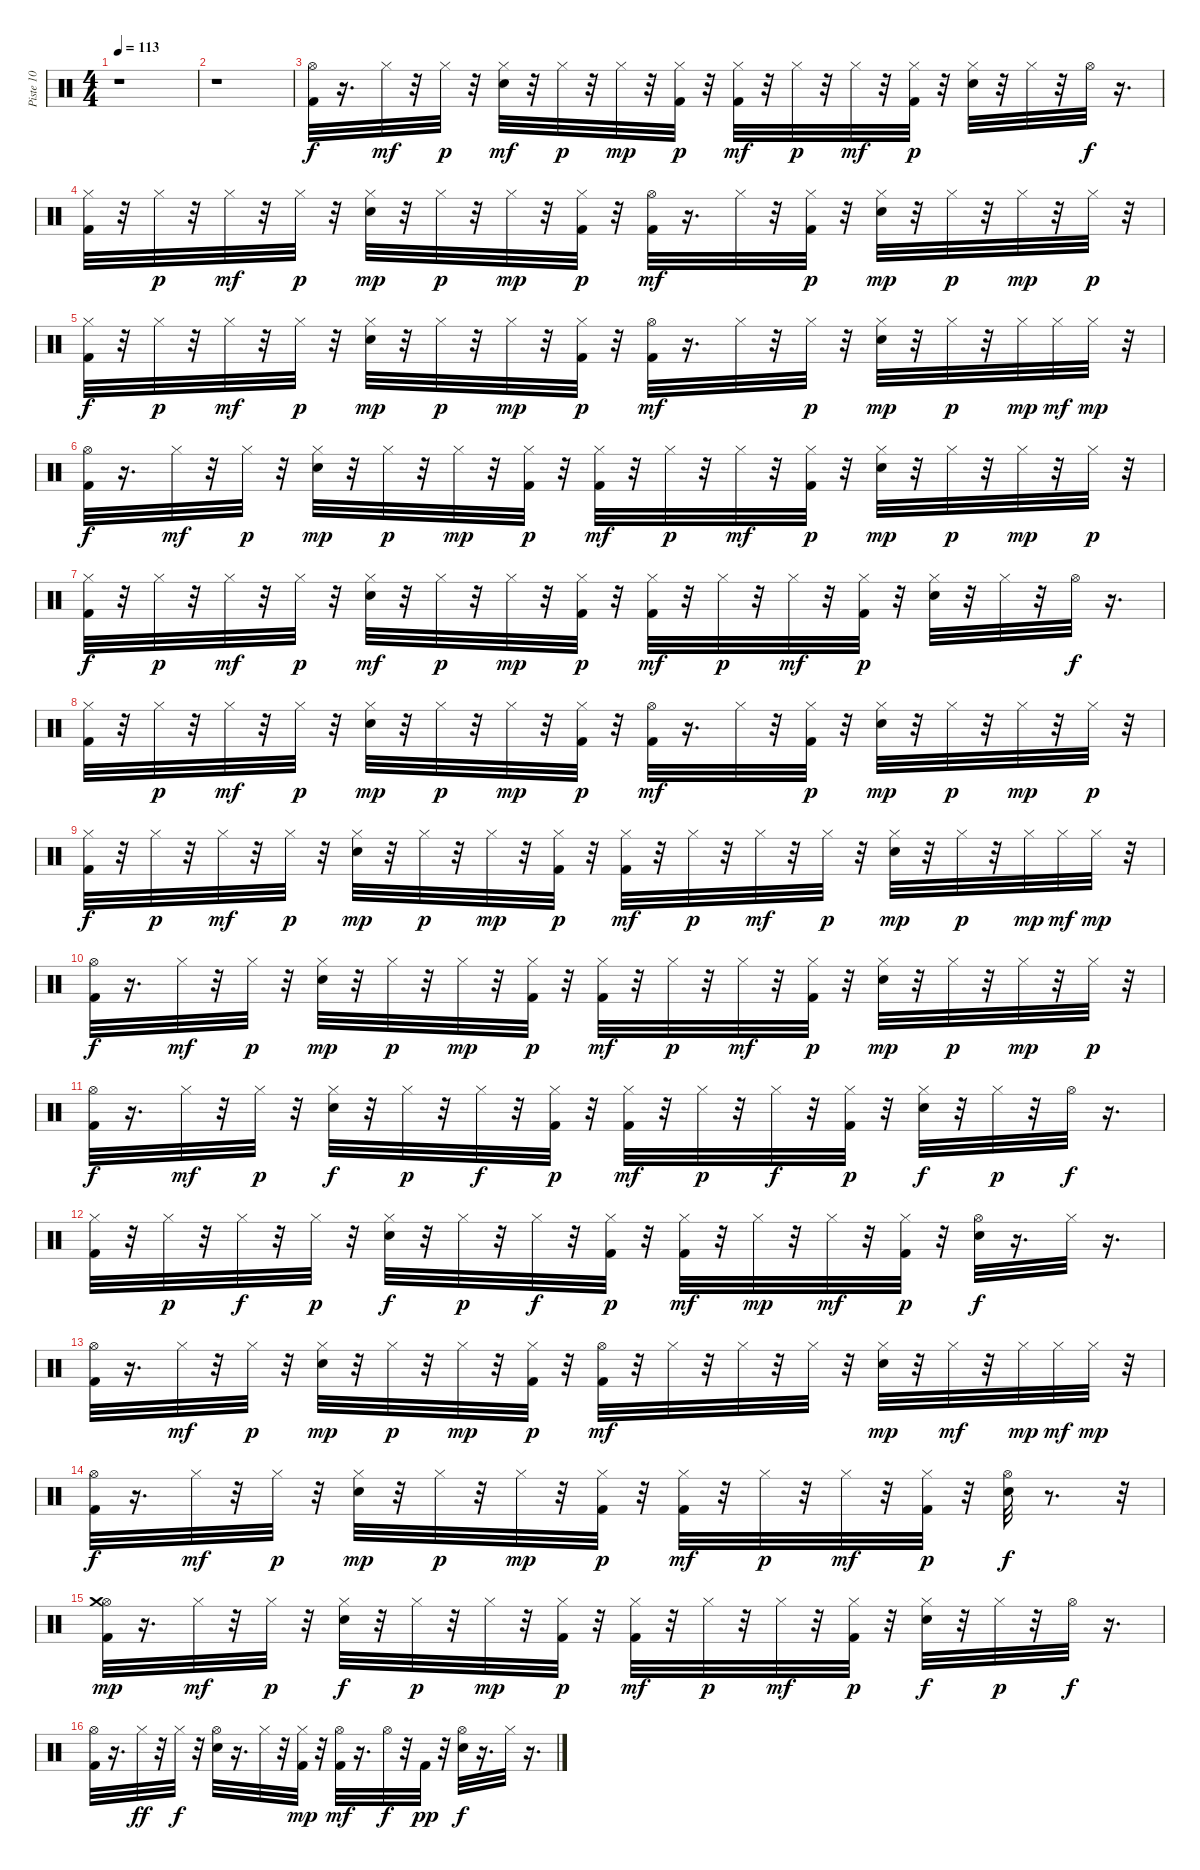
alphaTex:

\track ("Piste 10" "Piste 10") {instrument percussion}
\staff {score}
\articulation defaults
\ts (4 4)
\tempo 113
\clef neutral
\ks c
r.1{dy f} |
r.1 |
("Kick (hit) 2" "Hi-Hat (open)").32 r.16{d} "Hi-Hat (closed)".32{dy mf} r.32 "Hi-Hat (closed)".32{dy p} r.32 ("Electric Snare (hit)" "Hi-Hat (closed)").32{dy mf} r.32 "Hi-Hat (closed)".32{dy p} r.32 "Hi-Hat (closed)".32{dy mp} r.32 ("Kick (hit) 2" "Hi-Hat (closed)").32{dy p} r.32 ("Kick (hit) 2" "Hi-Hat (closed)").32{dy mf} r.32 "Hi-Hat (closed)".32{dy p} r.32 "Hi-Hat (closed)".32{dy mf} r.32 ("Kick (hit) 2" "Hi-Hat (closed)").32{dy p} r.32 ("Electric Snare (hit)" "Hi-Hat (closed)").32 r.32 "Hi-Hat (closed)".32 r.32 "Hi-Hat (open)".32{dy f} r.16{d} |
("Kick (hit) 2" "Hi-Hat (closed)").32 r.32 "Hi-Hat (closed)".32{dy p} r.32 "Hi-Hat (closed)".32{dy mf} r.32 "Hi-Hat (closed)".32{dy p} r.32 ("Electric Snare (hit)" "Hi-Hat (closed)").32{dy mp} r.32 "Hi-Hat (closed)".32{dy p} r.32 "Hi-Hat (closed)".32{dy mp} r.32 ("Kick (hit) 2" "Hi-Hat (closed)").32{dy p} r.32 ("Kick (hit) 2" "Hi-Hat (open)").32{dy mf} r.16{d} "Hi-Hat (closed)".32 r.32 ("Kick (hit) 2" "Hi-Hat (closed)").32{dy p} r.32 ("Electric Snare (hit)" "Hi-Hat (closed)").32{dy mp} r.32 "Hi-Hat (closed)".32{dy p} r.32 "Hi-Hat (closed)".32{dy mp} r.32 "Hi-Hat (closed)".32{dy p} r.32 |
("Kick (hit) 2" "Hi-Hat (closed)").32{dy f} r.32 "Hi-Hat (closed)".32{dy p} r.32 "Hi-Hat (closed)".32{dy mf} r.32 "Hi-Hat (closed)".32{dy p} r.32 ("Electric Snare (hit)" "Hi-Hat (closed)").32{dy mp} r.32 "Hi-Hat (closed)".32{dy p} r.32 "Hi-Hat (closed)".32{dy mp} r.32 ("Kick (hit) 2" "Hi-Hat (closed)").32{dy p} r.32 ("Kick (hit) 2" "Hi-Hat (open)").32{dy mf} r.16{d} "Hi-Hat (closed)".32 r.32 "Hi-Hat (closed)".32{dy p} r.32 ("Electric Snare (hit)" "Hi-Hat (closed)").32{dy mp} r.32 "Hi-Hat (closed)".32{dy p} r.32 "Hi-Hat (closed)".32{dy mp} "Hi-Hat (closed)".32{dy mf} "Hi-Hat (closed)".32{dy mp} r.32 |
("Kick (hit) 2" "Hi-Hat (open)").32{dy f} r.16{d} "Hi-Hat (closed)".32{dy mf} r.32 "Hi-Hat (closed)".32{dy p} r.32 ("Electric Snare (hit)" "Hi-Hat (closed)").32{dy mp} r.32 "Hi-Hat (closed)".32{dy p} r.32 "Hi-Hat (closed)".32{dy mp} r.32 ("Kick (hit) 2" "Hi-Hat (closed)").32{dy p} r.32 ("Kick (hit) 2" "Hi-Hat (closed)").32{dy mf} r.32 "Hi-Hat (closed)".32{dy p} r.32 "Hi-Hat (closed)".32{dy mf} r.32 ("Kick (hit) 2" "Hi-Hat (closed)").32{dy p} r.32 ("Electric Snare (hit)" "Hi-Hat (closed)").32{dy mp} r.32 "Hi-Hat (closed)".32{dy p} r.32 "Hi-Hat (closed)".32{dy mp} r.32 "Hi-Hat (closed)".32{dy p} r.32 |
("Kick (hit) 2" "Hi-Hat (closed)").32{dy f} r.32 "Hi-Hat (closed)".32{dy p} r.32 "Hi-Hat (closed)".32{dy mf} r.32 "Hi-Hat (closed)".32{dy p} r.32 ("Electric Snare (hit)" "Hi-Hat (closed)").32{dy mf} r.32 "Hi-Hat (closed)".32{dy p} r.32 "Hi-Hat (closed)".32{dy mp} r.32 ("Kick (hit) 2" "Hi-Hat (closed)").32{dy p} r.32 ("Kick (hit) 2" "Hi-Hat (closed)").32{dy mf} r.32 "Hi-Hat (closed)".32{dy p} r.32 "Hi-Hat (closed)".32{dy mf} r.32 ("Kick (hit) 2" "Hi-Hat (closed)").32{dy p} r.32 ("Electric Snare (hit)" "Hi-Hat (closed)").32 r.32 "Hi-Hat (closed)".32 r.32 "Hi-Hat (open)".32{dy f} r.16{d} |
("Kick (hit) 2" "Hi-Hat (closed)").32 r.32 "Hi-Hat (closed)".32{dy p} r.32 "Hi-Hat (closed)".32{dy mf} r.32 "Hi-Hat (closed)".32{dy p} r.32 ("Electric Snare (hit)" "Hi-Hat (closed)").32{dy mp} r.32 "Hi-Hat (closed)".32{dy p} r.32 "Hi-Hat (closed)".32{dy mp} r.32 ("Kick (hit) 2" "Hi-Hat (closed)").32{dy p} r.32 ("Kick (hit) 2" "Hi-Hat (open)").32{dy mf} r.16{d} "Hi-Hat (closed)".32 r.32 ("Kick (hit) 2" "Hi-Hat (closed)").32{dy p} r.32 ("Electric Snare (hit)" "Hi-Hat (closed)").32{dy mp} r.32 "Hi-Hat (closed)".32{dy p} r.32 "Hi-Hat (closed)".32{dy mp} r.32 "Hi-Hat (closed)".32{dy p} r.32 |
("Kick (hit) 2" "Hi-Hat (closed)").32{dy f} r.32 "Hi-Hat (closed)".32{dy p} r.32 "Hi-Hat (closed)".32{dy mf} r.32 "Hi-Hat (closed)".32{dy p} r.32 ("Electric Snare (hit)" "Hi-Hat (closed)").32{dy mp} r.32 "Hi-Hat (closed)".32{dy p} r.32 "Hi-Hat (closed)".32{dy mp} r.32 ("Kick (hit) 2" "Hi-Hat (closed)").32{dy p} r.32 ("Kick (hit) 2" "Hi-Hat (closed)").32{dy mf} r.32 "Hi-Hat (closed)".32{dy p} r.32 "Hi-Hat (closed)".32{dy mf} r.32 "Hi-Hat (closed)".32{dy p} r.32 ("Electric Snare (hit)" "Hi-Hat (closed)").32{dy mp} r.32 "Hi-Hat (closed)".32{dy p} r.32 "Hi-Hat (closed)".32{dy mp} "Hi-Hat (closed)".32{dy mf} "Hi-Hat (closed)".32{dy mp} r.32 |
("Kick (hit) 2" "Hi-Hat (open)").32{dy f} r.16{d} "Hi-Hat (closed)".32{dy mf} r.32 "Hi-Hat (closed)".32{dy p} r.32 ("Electric Snare (hit)" "Hi-Hat (closed)").32{dy mp} r.32 "Hi-Hat (closed)".32{dy p} r.32 "Hi-Hat (closed)".32{dy mp} r.32 ("Kick (hit) 2" "Hi-Hat (closed)").32{dy p} r.32 ("Kick (hit) 2" "Hi-Hat (closed)").32{dy mf} r.32 "Hi-Hat (closed)".32{dy p} r.32 "Hi-Hat (closed)".32{dy mf} r.32 ("Kick (hit) 2" "Hi-Hat (closed)").32{dy p} r.32 ("Electric Snare (hit)" "Hi-Hat (closed)").32{dy mp} r.32 "Hi-Hat (closed)".32{dy p} r.32 "Hi-Hat (closed)".32{dy mp} r.32 "Hi-Hat (closed)".32{dy p} r.32 |
("Kick (hit) 2" "Hi-Hat (open)").32{dy f} r.16{d} "Hi-Hat (closed)".32{dy mf} r.32 "Hi-Hat (closed)".32{dy p} r.32 ("Electric Snare (hit)" "Hi-Hat (closed)").32{dy f} r.32 "Hi-Hat (closed)".32{dy p} r.32 "Hi-Hat (closed)".32{dy f} r.32 ("Kick (hit) 2" "Hi-Hat (closed)").32{dy p} r.32 ("Kick (hit) 2" "Hi-Hat (closed)").32{dy mf} r.32 "Hi-Hat (closed)".32{dy p} r.32 "Hi-Hat (closed)".32{dy f} r.32 ("Kick (hit) 2" "Hi-Hat (closed)").32{dy p} r.32 ("Electric Snare (hit)" "Hi-Hat (closed)").32{dy f} r.32 "Hi-Hat (closed)".32{dy p} r.32 "Hi-Hat (open)".32{dy f} r.16{d} |
("Kick (hit) 2" "Hi-Hat (closed)").32 r.32 "Hi-Hat (closed)".32{dy p} r.32 "Hi-Hat (closed)".32{dy f} r.32 "Hi-Hat (closed)".32{dy p} r.32 ("Electric Snare (hit)" "Hi-Hat (closed)").32{dy f} r.32 "Hi-Hat (closed)".32{dy p} r.32 "Hi-Hat (closed)".32{dy f} r.32 ("Kick (hit) 2" "Hi-Hat (closed)").32{dy p} r.32 ("Kick (hit) 2" "Hi-Hat (closed)").32{dy mf} r.32 "Hi-Hat (closed)".32{dy mp} r.32 "Hi-Hat (closed)".32{dy mf} r.32 ("Kick (hit) 2" "Hi-Hat (closed)").32{dy p} r.32 ("Electric Snare (hit)" "Hi-Hat (open)").32{dy f} r.16{d} "Hi-Hat (closed)".32 r.16{d} |
("Kick (hit) 2" "Hi-Hat (open)").32 r.16{d} "Hi-Hat (closed)".32{dy mf} r.32 "Hi-Hat (closed)".32{dy p} r.32 ("Electric Snare (hit)" "Hi-Hat (closed)").32{dy mp} r.32 "Hi-Hat (closed)".32{dy p} r.32 "Hi-Hat (closed)".32{dy mp} r.32 ("Kick (hit) 2" "Hi-Hat (closed)").32{dy p} r.32 ("Kick (hit) 2" "Hi-Hat (open)").32{dy mf} r.32 "Hi-Hat (closed)".32 r.32 "Hi-Hat (closed)".32 r.32 "Hi-Hat (closed)".32 r.32 ("Electric Snare (hit)" "Hi-Hat (closed)").32{dy mp} r.32 "Hi-Hat (closed)".32{dy mf} r.32 "Hi-Hat (closed)".32{dy mp} "Hi-Hat (closed)".32{dy mf} "Hi-Hat (closed)".32{dy mp} r.32 |
("Kick (hit) 2" "Hi-Hat (open)").32{dy f} r.16{d} "Hi-Hat (closed)".32{dy mf} r.32 "Hi-Hat (closed)".32{dy p} r.32 ("Electric Snare (hit)" "Hi-Hat (closed)").32{dy mp} r.32 "Hi-Hat (closed)".32{dy p} r.32 "Hi-Hat (closed)".32{dy mp} r.32 ("Kick (hit) 2" "Hi-Hat (closed)").32{dy p} r.32 ("Kick (hit) 2" "Hi-Hat (closed)").32{dy mf} r.32 "Hi-Hat (closed)".32{dy p} r.32 "Hi-Hat (closed)".32{dy mf} r.32 ("Kick (hit) 2" "Hi-Hat (closed)").32{dy p} r.32 ("Electric Snare (hit)" "Hi-Hat (open)").32{dy f} r.8{d} r.32 |
("Kick (hit) 2" "Hi-Hat (open)" "Crash medium (hit)").32{dy mp} r.16{d} "Hi-Hat (closed)".32{dy mf} r.32 "Hi-Hat (closed)".32{dy p} r.32 ("Electric Snare (hit)" "Hi-Hat (closed)").32{dy f} r.32 "Hi-Hat (closed)".32{dy p} r.32 "Hi-Hat (closed)".32{dy mp} r.32 ("Kick (hit) 2" "Hi-Hat (closed)").32{dy p} r.32 ("Kick (hit) 2" "Hi-Hat (closed)").32{dy mf} r.32 "Hi-Hat (closed)".32{dy p} r.32 "Hi-Hat (closed)".32{dy mf} r.32 ("Kick (hit) 2" "Hi-Hat (closed)").32{dy p} r.32 ("Electric Snare (hit)" "Hi-Hat (closed)").32{dy f} r.32 "Hi-Hat (closed)".32{dy p} r.32 "Hi-Hat (open)".32{dy f} r.16{d} |
("Kick (hit) 2" "Hi-Hat (open)").32 r.16{d} "Hi-Hat (closed)".32{dy ff} r.32 "Hi-Hat (closed)".32{dy f} r.32 ("Electric Snare (hit)" "Hi-Hat (open)").32 r.16{d} "Hi-Hat (closed)".32 r.32 ("Kick (hit) 2" "Hi-Hat (closed)").32{dy mp} r.32 ("Kick (hit) 2" "Hi-Hat (open)").32{dy mf} r.16{d} "Hi-Hat (open)".32{dy f} r.32 "Kick (hit) 2".32{dy pp} r.32 ("Electric Snare (hit)" "Hi-Hat (open)").32{dy f} r.16{d} "Hi-Hat (closed)".32 r.16{d}
